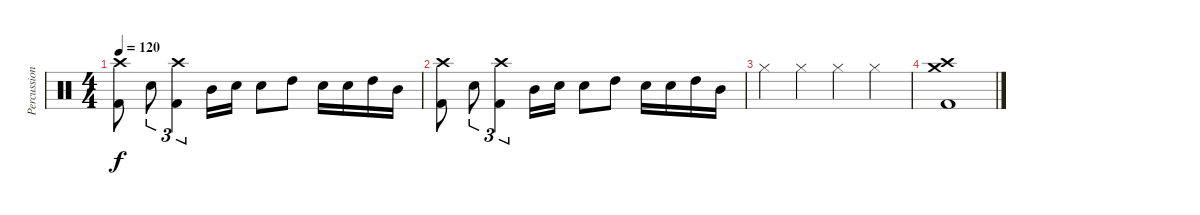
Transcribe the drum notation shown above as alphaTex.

\track ("Percussion" "Percussion") {instrument percussion}
\staff {score}
\articulation defaults
\ts (4 4)
\tempo 120
\clef neutral
\ks c
("Crash high (hit)" "Kick (hit) 2").8{dy f} "Snare (hit) 2".8{tu (3 2)} ("Crash high (hit)" "Kick (hit) 2").4{tu (3 2)} "Mid Tom (hit)".16 "Snare (hit) 2".16 "Snare (hit) 2".8 "High Tom (hit)".8 "Snare (hit) 2".16 "Snare (hit) 2".16 "High Tom (hit)".16 "Mid Tom (hit)".16 |
("Crash high (hit)" "Kick (hit) 2").8 "Snare (hit) 2".8{tu (3 2)} ("Crash high (hit)" "Kick (hit) 2").4{tu (3 2)} "Mid Tom (hit)".16 "Snare (hit) 2".16 "Snare (hit) 2".8 "High Tom (hit)".8 "Snare (hit) 2".16 "Snare (hit) 2".16 "High Tom (hit)".16 "Mid Tom (hit)".16 |
"Hi-Hat (closed)".4 "Hi-Hat (closed)".4 "Hi-Hat (closed)".4 "Hi-Hat (closed)".4 |
("Crash high (hit)" "Crash medium (hit)" "Kick (hit) 2").1
